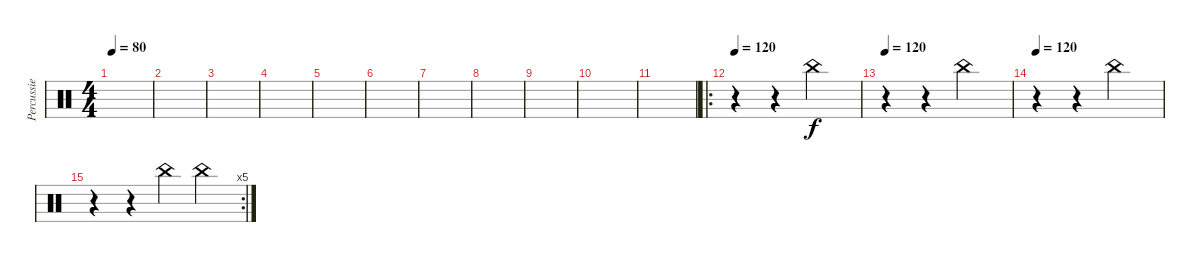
\track ("Percussie" "Percussie") {instrument percussion}
\staff {score}
\articulation defaults
\ts (4 4)
\tempo 80
\clef neutral
\ks c
|
|
|
|
|
|
|
|
|
|
|
\ro
\tempo 120
r.4 r.4 "China (hit)".2 |
\tempo 120
r.4 r.4 "China (hit)".2 |
\tempo 120
r.4 r.4 "China (hit)".2 |
\rc 5
r.4 r.4 "China (hit)".4 "China (hit)".4
